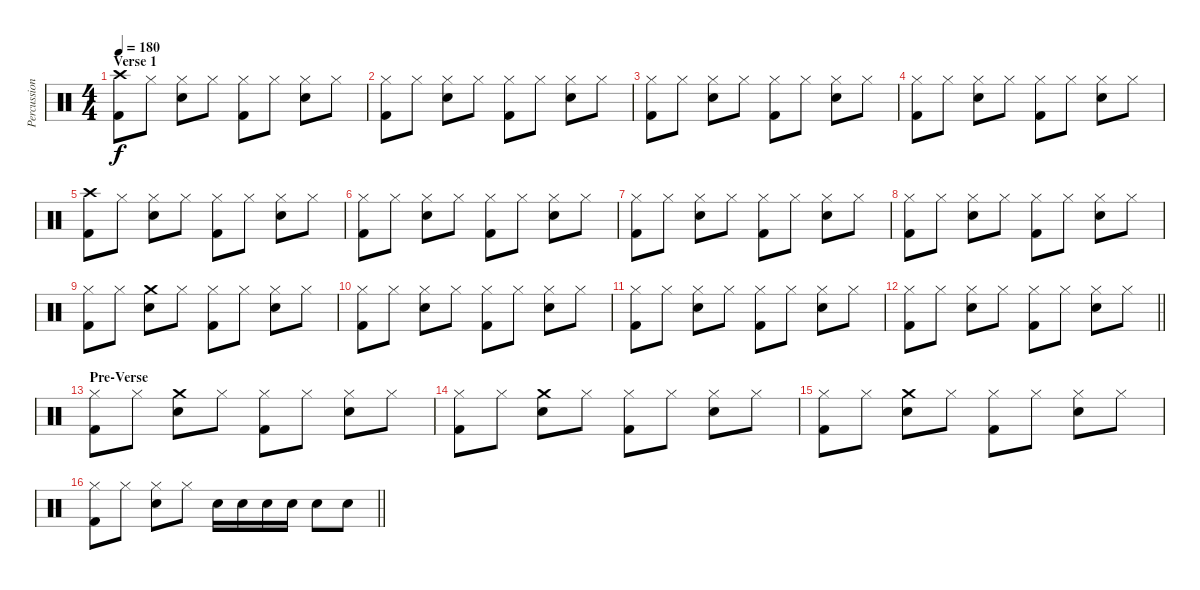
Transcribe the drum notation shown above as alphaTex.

\track ("Percussion" "Percussion") {instrument percussion}
\staff {score}
\articulation defaults
\ts (4 4)
\section ("" "Verse 1")
\tempo 180
\clef neutral
\ks c
("Crash high (hit)" "Kick (hit) 2").8{dy f} "Hi-Hat (closed)".8 ("Hi-Hat (closed)" "Snare (hit) 2").8 "Hi-Hat (closed)".8 ("Hi-Hat (closed)" "Kick (hit) 2").8 "Hi-Hat (closed)".8 ("Hi-Hat (closed)" "Snare (hit) 2").8 "Hi-Hat (closed)".8 |
("Hi-Hat (closed)" "Kick (hit) 2").8 "Hi-Hat (closed)".8 ("Hi-Hat (closed)" "Snare (hit) 2").8 "Hi-Hat (closed)".8 ("Hi-Hat (closed)" "Kick (hit) 2").8 "Hi-Hat (closed)".8 ("Hi-Hat (closed)" "Snare (hit) 2").8 "Hi-Hat (closed)".8 |
("Hi-Hat (closed)" "Kick (hit) 2").8 "Hi-Hat (closed)".8 ("Hi-Hat (closed)" "Snare (hit) 2").8 "Hi-Hat (closed)".8 ("Hi-Hat (closed)" "Kick (hit) 2").8 "Hi-Hat (closed)".8 ("Hi-Hat (closed)" "Snare (hit) 2").8 "Hi-Hat (closed)".8 |
("Hi-Hat (closed)" "Kick (hit) 2").8 "Hi-Hat (closed)".8 ("Hi-Hat (closed)" "Snare (hit) 2").8 "Hi-Hat (closed)".8 ("Hi-Hat (closed)" "Kick (hit) 2").8 "Hi-Hat (closed)".8 ("Hi-Hat (closed)" "Snare (hit) 2").8 "Hi-Hat (closed)".8 |
("Crash high (hit)" "Kick (hit) 2").8 "Hi-Hat (closed)".8 ("Hi-Hat (closed)" "Snare (hit) 2").8 "Hi-Hat (closed)".8 ("Hi-Hat (closed)" "Kick (hit) 2").8 "Hi-Hat (closed)".8 ("Hi-Hat (closed)" "Snare (hit) 2").8 "Hi-Hat (closed)".8 |
("Hi-Hat (closed)" "Kick (hit) 2").8 "Hi-Hat (closed)".8 ("Hi-Hat (closed)" "Snare (hit) 2").8 "Hi-Hat (closed)".8 ("Hi-Hat (closed)" "Kick (hit) 2").8 "Hi-Hat (closed)".8 ("Hi-Hat (closed)" "Snare (hit) 2").8 "Hi-Hat (closed)".8 |
("Hi-Hat (closed)" "Kick (hit) 2").8 "Hi-Hat (closed)".8 ("Hi-Hat (closed)" "Snare (hit) 2").8 "Hi-Hat (closed)".8 ("Hi-Hat (closed)" "Kick (hit) 2").8 "Hi-Hat (closed)".8 ("Hi-Hat (closed)" "Snare (hit) 2").8 "Hi-Hat (closed)".8 |
("Hi-Hat (closed)" "Kick (hit) 2").8 "Hi-Hat (closed)".8 ("Hi-Hat (closed)" "Snare (hit) 2").8 "Hi-Hat (closed)".8 ("Hi-Hat (closed)" "Kick (hit) 2").8 "Hi-Hat (closed)".8 ("Hi-Hat (closed)" "Snare (hit) 2").8 "Hi-Hat (closed)".8 |
("Hi-Hat (closed)" "Kick (hit) 2").8 "Hi-Hat (closed)".8 ("Crash medium (hit)" "Snare (hit) 2").8 "Hi-Hat (closed)".8 ("Hi-Hat (closed)" "Kick (hit) 2").8 "Hi-Hat (closed)".8 ("Hi-Hat (closed)" "Snare (hit) 2").8 "Hi-Hat (closed)".8 |
("Hi-Hat (closed)" "Kick (hit) 2").8 "Hi-Hat (closed)".8 ("Hi-Hat (closed)" "Snare (hit) 2").8 "Hi-Hat (closed)".8 ("Hi-Hat (closed)" "Kick (hit) 2").8 "Hi-Hat (closed)".8 ("Hi-Hat (closed)" "Snare (hit) 2").8 "Hi-Hat (closed)".8 |
("Hi-Hat (closed)" "Kick (hit) 2").8 "Hi-Hat (closed)".8 ("Hi-Hat (closed)" "Snare (hit) 2").8 "Hi-Hat (closed)".8 ("Hi-Hat (closed)" "Kick (hit) 2").8 "Hi-Hat (closed)".8 ("Hi-Hat (closed)" "Snare (hit) 2").8 "Hi-Hat (closed)".8 |
\barLineRight lightlight
("Hi-Hat (closed)" "Kick (hit) 2").8 "Hi-Hat (closed)".8 ("Hi-Hat (closed)" "Snare (hit) 2").8 "Hi-Hat (closed)".8 ("Hi-Hat (closed)" "Kick (hit) 2").8 "Hi-Hat (closed)".8 ("Hi-Hat (closed)" "Snare (hit) 2").8 "Hi-Hat (closed)".8 |
\section ("" "Pre-Verse")
("Hi-Hat (closed)" "Kick (hit) 2").8 "Hi-Hat (closed)".8 ("Crash medium (hit)" "Snare (hit) 2").8 "Hi-Hat (closed)".8 ("Hi-Hat (closed)" "Kick (hit) 2").8 "Hi-Hat (closed)".8 ("Hi-Hat (closed)" "Snare (hit) 2").8 "Hi-Hat (closed)".8 |
("Hi-Hat (closed)" "Kick (hit) 2").8 "Hi-Hat (closed)".8 ("Crash medium (hit)" "Snare (hit) 2").8 "Hi-Hat (closed)".8 ("Hi-Hat (closed)" "Kick (hit) 2").8 "Hi-Hat (closed)".8 ("Hi-Hat (closed)" "Snare (hit) 2").8 "Hi-Hat (closed)".8 |
("Hi-Hat (closed)" "Kick (hit) 2").8 "Hi-Hat (closed)".8 ("Crash medium (hit)" "Snare (hit) 2").8 "Hi-Hat (closed)".8 ("Hi-Hat (closed)" "Kick (hit) 2").8 "Hi-Hat (closed)".8 ("Hi-Hat (closed)" "Snare (hit) 2").8 "Hi-Hat (closed)".8 |
\barLineRight lightlight
("Hi-Hat (closed)" "Kick (hit) 2").8 "Hi-Hat (closed)".8 ("Hi-Hat (closed)" "Snare (hit) 2").8 "Hi-Hat (closed)".8 "Snare (hit) 2".16 "Snare (hit) 2".16 "Snare (hit) 2".16 "Snare (hit) 2".16 "Snare (hit) 2".8 "Snare (hit) 2".8
